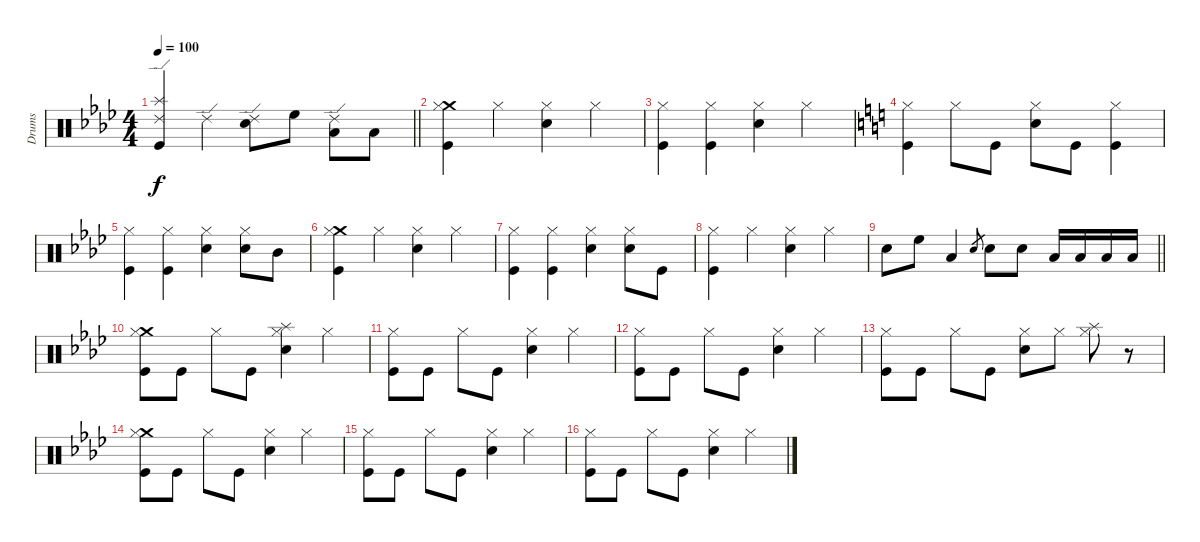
\track ("Drums" "Drums") {instrument percussion}
\staff {score}
\articulation defaults
\ts (4 4)
\tempo 100
\clef neutral
\barLineRight lightlight
\ks ab
("Ride (edge) 2" "Splash (hit)" "Kick (hit)").4{dy f} "Ride (edge) 2".4 ("Ride (edge) 2" "Electric Snare (hit)").8 "High Floor Tom (hit)".8 ("Ride (edge) 2" "Low Tom (hit)").8 "Low Floor Tom (hit)".8 |
("Crash medium (hit)" "Hi-Hat (closed)" "Kick (hit)").4 "Hi-Hat (closed)".4 ("Hi-Hat (closed)" "Electric Snare (hit)").4 "Hi-Hat (closed)".4 |
("Hi-Hat (closed)" "Kick (hit)").4 ("Hi-Hat (closed)" "Kick (hit)").4 ("Hi-Hat (closed)" "Electric Snare (hit)").4 "Hi-Hat (closed)".4 |
\ks c
("Hi-Hat (closed)" "Kick (hit)").4 "Hi-Hat (closed)".8 "Kick (hit)".8 ("Hi-Hat (closed)" "Electric Snare (hit)").8 "Kick (hit)".8 ("Hi-Hat (closed)" "Kick (hit)").4 |
\ks ab
("Hi-Hat (closed)" "Kick (hit)").4 ("Hi-Hat (closed)" "Kick (hit)").4 ("Hi-Hat (closed)" "Electric Snare (hit)").4 ("Hi-Hat (closed)" "Electric Snare (hit)").8 "Mid Tom (hit)".8 |
("Crash medium (hit)" "Hi-Hat (closed)" "Kick (hit)").4 "Hi-Hat (closed)".4 ("Hi-Hat (closed)" "Electric Snare (hit)").4 "Hi-Hat (closed)".4 |
("Hi-Hat (closed)" "Kick (hit)").4 ("Hi-Hat (closed)" "Kick (hit)").4 ("Hi-Hat (closed)" "Electric Snare (hit)").4 ("Hi-Hat (closed)" "Electric Snare (hit)").8 "Kick (hit)".8 |
("Hi-Hat (closed)" "Kick (hit)").4 "Hi-Hat (closed)".4 ("Hi-Hat (closed)" "Electric Snare (hit)").4 "Hi-Hat (closed)".4 |
\barLineRight lightlight "Electric Snare (hit)".8 "High Floor Tom (hit)".8 "Low Tom (hit)".4 "Electric Snare (hit)".8{gr} "Electric Snare (hit)".8 "Electric Snare (hit)".8 "Low Tom (hit)".16 "Low Tom (hit)".16 "Low Floor Tom (hit)".16 "Low Floor Tom (hit)".16
|
("Crash medium (hit)" "Hi-Hat (closed)" "Kick (hit)").8 "Kick (hit)".8 "Hi-Hat (closed)".8 "Kick (hit)".8 ("Splash (hit)" "Hi-Hat (closed)" "Electric Snare (hit)").4 "Hi-Hat (closed)".4 |
("Hi-Hat (closed)" "Kick (hit)").8 "Kick (hit)".8 "Hi-Hat (closed)".8 "Kick (hit)".8 ("Hi-Hat (closed)" "Electric Snare (hit)").4 "Hi-Hat (closed)".4 |
("Hi-Hat (closed)" "Kick (hit)").8 "Kick (hit)".8 "Hi-Hat (closed)".8 "Kick (hit)".8 ("Hi-Hat (closed)" "Electric Snare (hit)").4 "Hi-Hat (closed)".4 |
("Hi-Hat (closed)" "Kick (hit)").8 "Kick (hit)".8 "Hi-Hat (closed)".8 "Kick (hit)".8 ("Hi-Hat (closed)" "Electric Snare (hit)").8 "Hi-Hat (closed)".8 ("Splash (hit)" "Hi-Hat (closed)").8 r.8 |
("Crash medium (hit)" "Hi-Hat (closed)" "Kick (hit)").8 "Kick (hit)".8 "Hi-Hat (closed)".8 "Kick (hit)".8 ("Hi-Hat (closed)" "Electric Snare (hit)").4 "Hi-Hat (closed)".4 |
("Hi-Hat (closed)" "Kick (hit)").8 "Kick (hit)".8 "Hi-Hat (closed)".8 "Kick (hit)".8 ("Hi-Hat (closed)" "Electric Snare (hit)").4 "Hi-Hat (closed)".4 |
("Hi-Hat (closed)" "Kick (hit)").8 "Kick (hit)".8 "Hi-Hat (closed)".8 "Kick (hit)".8 ("Hi-Hat (closed)" "Electric Snare (hit)").4 "Hi-Hat (closed)".4
